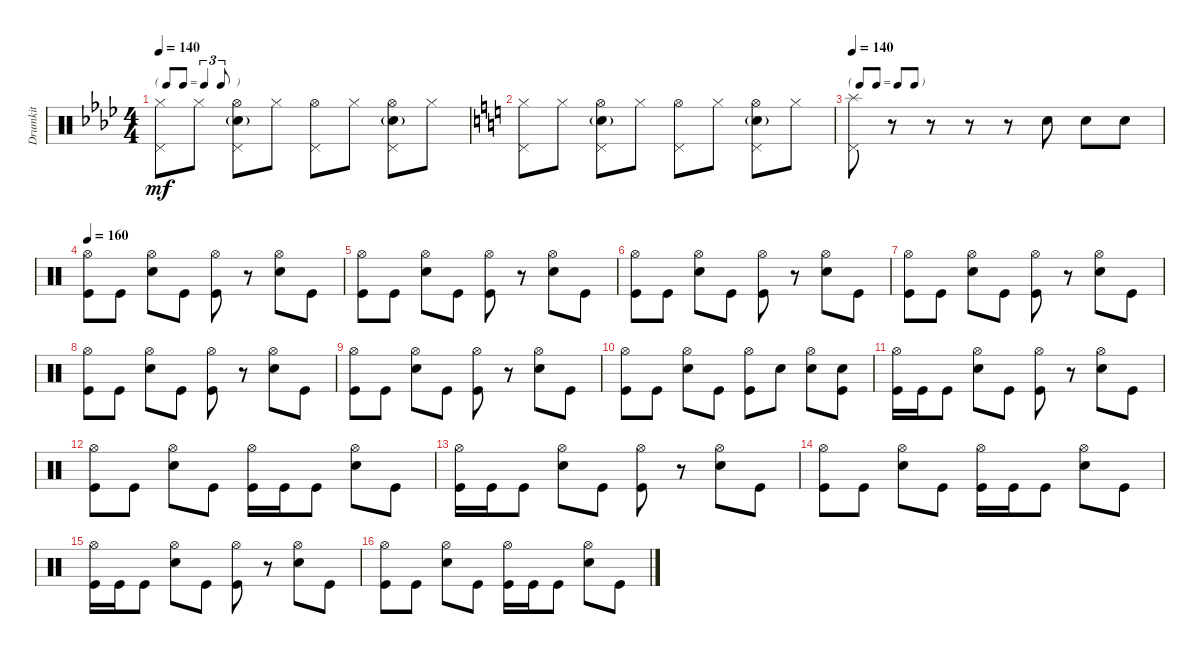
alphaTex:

\track ("Drumkit" "Drumkit") {instrument percussion}
\staff {score}
\articulation defaults
\ts (4 4)
\tf triplet8th
\tempo 140
\clef neutral
\ks ab
("Pedal Hi-Hat (hit)" "Hi-Hat (closed)").8{dy mf} "Hi-Hat (closed)".8 ("Pedal Hi-Hat (hit)" "Snare (hit) 2"{g} "Hi-Hat (open)").8 "Hi-Hat (closed)".8 ("Pedal Hi-Hat (hit)" "Hi-Hat (open)").8 "Hi-Hat (closed)".8 ("Pedal Hi-Hat (hit)" "Snare (hit) 2"{g} "Hi-Hat (open)").8 "Hi-Hat (closed)".8 |
\ks c
("Pedal Hi-Hat (hit)" "Hi-Hat (closed)").8 "Hi-Hat (closed)".8 ("Pedal Hi-Hat (hit)" "Snare (hit) 2"{g} "Hi-Hat (open)").8 "Hi-Hat (closed)".8 ("Pedal Hi-Hat (hit)" "Hi-Hat (open)").8 "Hi-Hat (closed)".8 ("Pedal Hi-Hat (hit)" "Snare (hit) 2"{g} "Hi-Hat (open)").8 "Hi-Hat (closed)".8 |
\tf none
\tempo 140
("Pedal Hi-Hat (hit)" "Splash (hit)").8 r.8 r.8 r.8 r.8 "Snare (hit) 2".8 "Snare (hit) 2".8 "Snare (hit) 2".8 |
\tempo 160
("Hi-Hat (open)" "Kick (hit)").8 "Kick (hit)".8 ("Hi-Hat (open)" "Snare (hit) 2").8 "Kick (hit)".8 ("Hi-Hat (open)" "Kick (hit)").8 r.8 ("Hi-Hat (open)" "Snare (hit) 2").8 "Kick (hit)".8 |
("Hi-Hat (open)" "Kick (hit)").8 "Kick (hit)".8 ("Hi-Hat (open)" "Snare (hit) 2").8 "Kick (hit)".8 ("Hi-Hat (open)" "Kick (hit)").8 r.8 ("Hi-Hat (open)" "Snare (hit) 2").8 "Kick (hit)".8 |
("Hi-Hat (open)" "Kick (hit)").8 "Kick (hit)".8 ("Hi-Hat (open)" "Snare (hit) 2").8 "Kick (hit)".8 ("Hi-Hat (open)" "Kick (hit)").8 r.8 ("Hi-Hat (open)" "Snare (hit) 2").8 "Kick (hit)".8 |
("Hi-Hat (open)" "Kick (hit)").8 "Kick (hit)".8 ("Hi-Hat (open)" "Snare (hit) 2").8 "Kick (hit)".8 ("Hi-Hat (open)" "Kick (hit)").8 r.8 ("Hi-Hat (open)" "Snare (hit) 2").8 "Kick (hit)".8 |
("Hi-Hat (open)" "Kick (hit)").8 "Kick (hit)".8 ("Hi-Hat (open)" "Snare (hit) 2").8 "Kick (hit)".8 ("Hi-Hat (open)" "Kick (hit)").8 r.8 ("Hi-Hat (open)" "Snare (hit) 2").8 "Kick (hit)".8 |
("Hi-Hat (open)" "Kick (hit)").8 "Kick (hit)".8 ("Hi-Hat (open)" "Snare (hit) 2").8 "Kick (hit)".8 ("Hi-Hat (open)" "Kick (hit)").8 r.8 ("Hi-Hat (open)" "Snare (hit) 2").8 "Kick (hit)".8 |
("Hi-Hat (open)" "Kick (hit)").8 "Kick (hit)".8 ("Hi-Hat (open)" "Snare (hit) 2").8 "Kick (hit)".8 ("Hi-Hat (open)" "Kick (hit)").8 "Snare (hit) 2".8 ("Hi-Hat (open)" "Snare (hit) 2").8 ("Kick (hit)" "Snare (hit) 2").8 |
("Hi-Hat (open)" "Kick (hit)").16 "Kick (hit)".16 "Kick (hit)".8 ("Hi-Hat (open)" "Snare (hit) 2").8 "Kick (hit)".8 ("Hi-Hat (open)" "Kick (hit)").8 r.8 ("Hi-Hat (open)" "Snare (hit) 2").8 "Kick (hit)".8 |
("Hi-Hat (open)" "Kick (hit)").8 "Kick (hit)".8 ("Hi-Hat (open)" "Snare (hit) 2").8 "Kick (hit)".8 ("Hi-Hat (open)" "Kick (hit)").16 "Kick (hit)".16 "Kick (hit)".8 ("Hi-Hat (open)" "Snare (hit) 2").8 "Kick (hit)".8 |
("Hi-Hat (open)" "Kick (hit)").16 "Kick (hit)".16 "Kick (hit)".8 ("Hi-Hat (open)" "Snare (hit) 2").8 "Kick (hit)".8 ("Hi-Hat (open)" "Kick (hit)").8 r.8 ("Hi-Hat (open)" "Snare (hit) 2").8 "Kick (hit)".8 |
("Hi-Hat (open)" "Kick (hit)").8 "Kick (hit)".8 ("Hi-Hat (open)" "Snare (hit) 2").8 "Kick (hit)".8 ("Hi-Hat (open)" "Kick (hit)").16 "Kick (hit)".16 "Kick (hit)".8 ("Hi-Hat (open)" "Snare (hit) 2").8 "Kick (hit)".8 |
("Hi-Hat (open)" "Kick (hit)").16 "Kick (hit)".16 "Kick (hit)".8 ("Hi-Hat (open)" "Snare (hit) 2").8 "Kick (hit)".8 ("Hi-Hat (open)" "Kick (hit)").8 r.8 ("Hi-Hat (open)" "Snare (hit) 2").8 "Kick (hit)".8 |
("Hi-Hat (open)" "Kick (hit)").8 "Kick (hit)".8 ("Hi-Hat (open)" "Snare (hit) 2").8 "Kick (hit)".8 ("Hi-Hat (open)" "Kick (hit)").16 "Kick (hit)".16 "Kick (hit)".8 ("Hi-Hat (open)" "Snare (hit) 2").8 "Kick (hit)".8
